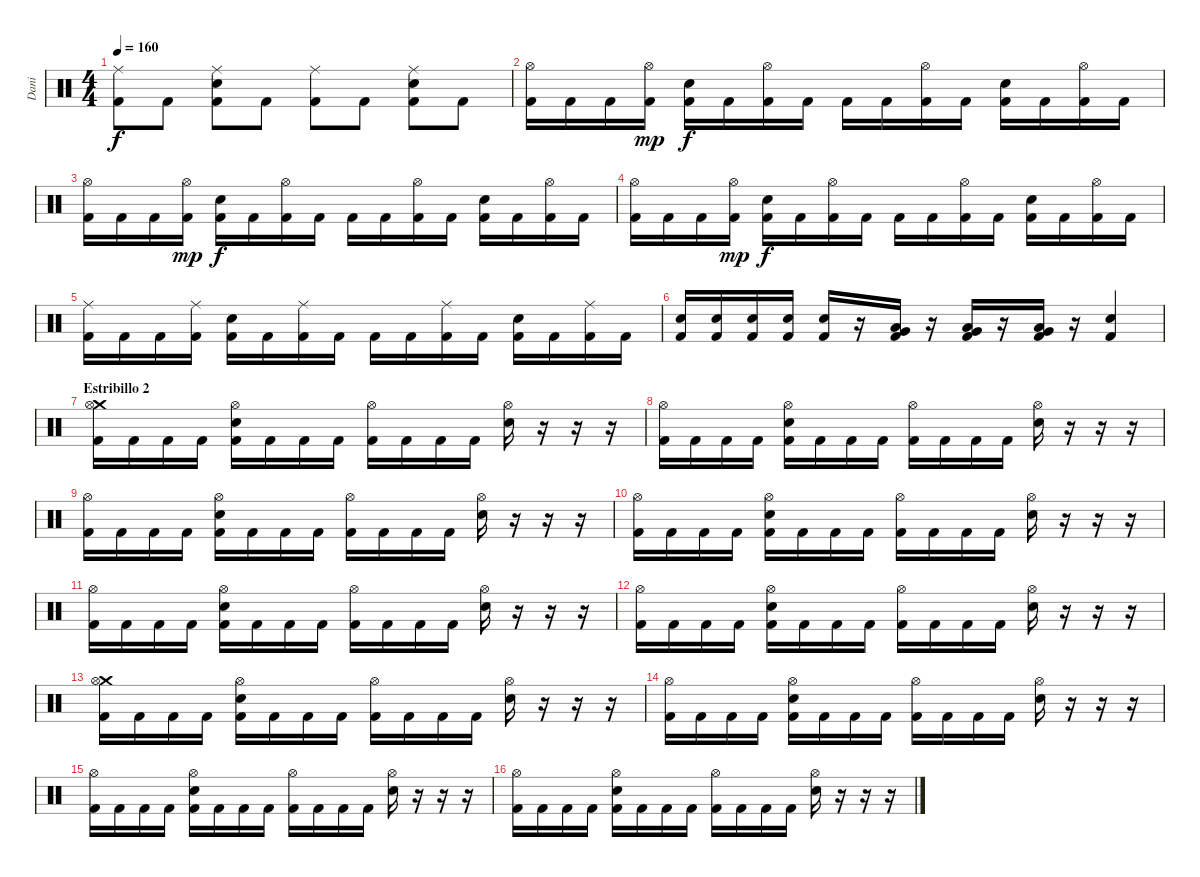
\track ("Dani" "Dani") {instrument percussion}
\staff {score}
\articulation defaults
\ts (4 4)
\tempo 160
\clef neutral
\ks c
("Ride (middle)" "Kick (hit) 2").8{dy f} "Kick (hit) 2".8 ("Ride (middle)" "Electric Snare (hit)" "Kick (hit) 2").8 "Kick (hit) 2".8 ("Ride (middle)" "Kick (hit) 2").8 "Kick (hit) 2".8 ("Ride (middle)" "Electric Snare (hit)" "Kick (hit) 2").8 "Kick (hit) 2".8 |
("Hi-Hat (open)" "Kick (hit) 2").16 "Kick (hit) 2".16 "Kick (hit) 2".16 ("Hi-Hat (open)" "Kick (hit) 2").16{dy mp} ("Electric Snare (hit)" "Kick (hit) 2").16{dy f} "Kick (hit) 2".16 ("Hi-Hat (open)" "Kick (hit) 2").16 "Kick (hit) 2".16 "Kick (hit) 2".16 "Kick (hit) 2".16 ("Hi-Hat (open)" "Kick (hit) 2").16 "Kick (hit) 2".16 ("Electric Snare (hit)" "Kick (hit) 2").16 "Kick (hit) 2".16 ("Hi-Hat (open)" "Kick (hit) 2").16 "Kick (hit) 2".16 |
("Hi-Hat (open)" "Kick (hit) 2").16 "Kick (hit) 2".16 "Kick (hit) 2".16 ("Hi-Hat (open)" "Kick (hit) 2").16{dy mp} ("Electric Snare (hit)" "Kick (hit) 2").16{dy f} "Kick (hit) 2".16 ("Hi-Hat (open)" "Kick (hit) 2").16 "Kick (hit) 2".16 "Kick (hit) 2".16 "Kick (hit) 2".16 ("Hi-Hat (open)" "Kick (hit) 2").16 "Kick (hit) 2".16 ("Electric Snare (hit)" "Kick (hit) 2").16 "Kick (hit) 2".16 ("Hi-Hat (open)" "Kick (hit) 2").16 "Kick (hit) 2".16 |
("Hi-Hat (open)" "Kick (hit) 2").16 "Kick (hit) 2".16 "Kick (hit) 2".16 ("Hi-Hat (open)" "Kick (hit) 2").16{dy mp} ("Electric Snare (hit)" "Kick (hit) 2").16{dy f} "Kick (hit) 2".16 ("Hi-Hat (open)" "Kick (hit) 2").16 "Kick (hit) 2".16 "Kick (hit) 2".16 "Kick (hit) 2".16 ("Hi-Hat (open)" "Kick (hit) 2").16 "Kick (hit) 2".16 ("Electric Snare (hit)" "Kick (hit) 2").16 "Kick (hit) 2".16 ("Hi-Hat (open)" "Kick (hit) 2").16 "Kick (hit) 2".16 |
("Ride (middle)" "Kick (hit) 2").16 "Kick (hit) 2".16 "Kick (hit) 2".16 ("Ride (middle)" "Kick (hit) 2").16 ("Electric Snare (hit)" "Kick (hit) 2").16 "Kick (hit) 2".16 ("Ride (middle)" "Kick (hit) 2").16 "Kick (hit) 2".16 "Kick (hit) 2".16 "Kick (hit) 2".16 ("Ride (middle)" "Kick (hit) 2").16 "Kick (hit) 2".16 ("Electric Snare (hit)" "Kick (hit) 2").16 "Kick (hit) 2".16 ("Ride (middle)" "Kick (hit) 2").16 "Kick (hit) 2".16 |
("Electric Snare (hit)" "Kick (hit) 2").16 ("Electric Snare (hit)" "Kick (hit) 2").16 ("Electric Snare (hit)" "Kick (hit) 2").16 ("Electric Snare (hit)" "Kick (hit) 2").16 ("Electric Snare (hit)" "Kick (hit) 2").16 r.16 ("Low Floor Tom (hit)" "Very Low Tom (hit)" "Kick (hit) 2").16 r.16 ("Low Floor Tom (hit)" "Very Low Tom (hit)" "Kick (hit) 2").16 r.16 ("Low Floor Tom (hit)" "Very Low Tom (hit)" "Kick (hit) 2").16 r.16 ("Electric Snare (hit)" "Kick (hit) 2").4 |
\section ("" "Estribillo 2")
("Crash medium (hit)" "Hi-Hat (open)" "Kick (hit) 2").16 "Kick (hit) 2".16 "Kick (hit) 2".16 "Kick (hit) 2".16 ("Hi-Hat (open)" "Electric Snare (hit)" "Kick (hit) 2").16 "Kick (hit) 2".16 "Kick (hit) 2".16 "Kick (hit) 2".16 ("Hi-Hat (open)" "Kick (hit) 2").16 "Kick (hit) 2".16 "Kick (hit) 2".16 "Kick (hit) 2".16 ("Hi-Hat (open)" "Electric Snare (hit)").16 r.16 r.16 r.16 |
("Hi-Hat (open)" "Kick (hit) 2").16 "Kick (hit) 2".16 "Kick (hit) 2".16 "Kick (hit) 2".16 ("Hi-Hat (open)" "Electric Snare (hit)" "Kick (hit) 2").16 "Kick (hit) 2".16 "Kick (hit) 2".16 "Kick (hit) 2".16 ("Hi-Hat (open)" "Kick (hit) 2").16 "Kick (hit) 2".16 "Kick (hit) 2".16 "Kick (hit) 2".16 ("Hi-Hat (open)" "Electric Snare (hit)").16 r.16 r.16 r.16 |
("Hi-Hat (open)" "Kick (hit) 2").16 "Kick (hit) 2".16 "Kick (hit) 2".16 "Kick (hit) 2".16 ("Hi-Hat (open)" "Electric Snare (hit)" "Kick (hit) 2").16 "Kick (hit) 2".16 "Kick (hit) 2".16 "Kick (hit) 2".16 ("Hi-Hat (open)" "Kick (hit) 2").16 "Kick (hit) 2".16 "Kick (hit) 2".16 "Kick (hit) 2".16 ("Hi-Hat (open)" "Electric Snare (hit)").16 r.16 r.16 r.16 |
("Hi-Hat (open)" "Kick (hit) 2").16 "Kick (hit) 2".16 "Kick (hit) 2".16 "Kick (hit) 2".16 ("Hi-Hat (open)" "Electric Snare (hit)" "Kick (hit) 2").16 "Kick (hit) 2".16 "Kick (hit) 2".16 "Kick (hit) 2".16 ("Hi-Hat (open)" "Kick (hit) 2").16 "Kick (hit) 2".16 "Kick (hit) 2".16 "Kick (hit) 2".16 ("Hi-Hat (open)" "Electric Snare (hit)").16 r.16 r.16 r.16 |
("Hi-Hat (open)" "Kick (hit) 2").16 "Kick (hit) 2".16 "Kick (hit) 2".16 "Kick (hit) 2".16 ("Hi-Hat (open)" "Electric Snare (hit)" "Kick (hit) 2").16 "Kick (hit) 2".16 "Kick (hit) 2".16 "Kick (hit) 2".16 ("Hi-Hat (open)" "Kick (hit) 2").16 "Kick (hit) 2".16 "Kick (hit) 2".16 "Kick (hit) 2".16 ("Hi-Hat (open)" "Electric Snare (hit)").16 r.16 r.16 r.16 |
("Hi-Hat (open)" "Kick (hit) 2").16 "Kick (hit) 2".16 "Kick (hit) 2".16 "Kick (hit) 2".16 ("Hi-Hat (open)" "Electric Snare (hit)" "Kick (hit) 2").16 "Kick (hit) 2".16 "Kick (hit) 2".16 "Kick (hit) 2".16 ("Hi-Hat (open)" "Kick (hit) 2").16 "Kick (hit) 2".16 "Kick (hit) 2".16 "Kick (hit) 2".16 ("Hi-Hat (open)" "Electric Snare (hit)").16 r.16 r.16 r.16 |
("Crash medium (hit)" "Hi-Hat (open)" "Kick (hit) 2").16 "Kick (hit) 2".16 "Kick (hit) 2".16 "Kick (hit) 2".16 ("Hi-Hat (open)" "Electric Snare (hit)" "Kick (hit) 2").16 "Kick (hit) 2".16 "Kick (hit) 2".16 "Kick (hit) 2".16 ("Hi-Hat (open)" "Kick (hit) 2").16 "Kick (hit) 2".16 "Kick (hit) 2".16 "Kick (hit) 2".16 ("Hi-Hat (open)" "Electric Snare (hit)").16 r.16 r.16 r.16 |
("Hi-Hat (open)" "Kick (hit) 2").16 "Kick (hit) 2".16 "Kick (hit) 2".16 "Kick (hit) 2".16 ("Hi-Hat (open)" "Electric Snare (hit)" "Kick (hit) 2").16 "Kick (hit) 2".16 "Kick (hit) 2".16 "Kick (hit) 2".16 ("Hi-Hat (open)" "Kick (hit) 2").16 "Kick (hit) 2".16 "Kick (hit) 2".16 "Kick (hit) 2".16 ("Hi-Hat (open)" "Electric Snare (hit)").16 r.16 r.16 r.16 |
("Hi-Hat (open)" "Kick (hit) 2").16 "Kick (hit) 2".16 "Kick (hit) 2".16 "Kick (hit) 2".16 ("Hi-Hat (open)" "Electric Snare (hit)" "Kick (hit) 2").16 "Kick (hit) 2".16 "Kick (hit) 2".16 "Kick (hit) 2".16 ("Hi-Hat (open)" "Kick (hit) 2").16 "Kick (hit) 2".16 "Kick (hit) 2".16 "Kick (hit) 2".16 ("Hi-Hat (open)" "Electric Snare (hit)").16 r.16 r.16 r.16 |
("Hi-Hat (open)" "Kick (hit) 2").16 "Kick (hit) 2".16 "Kick (hit) 2".16 "Kick (hit) 2".16 ("Hi-Hat (open)" "Electric Snare (hit)" "Kick (hit) 2").16 "Kick (hit) 2".16 "Kick (hit) 2".16 "Kick (hit) 2".16 ("Hi-Hat (open)" "Kick (hit) 2").16 "Kick (hit) 2".16 "Kick (hit) 2".16 "Kick (hit) 2".16 ("Hi-Hat (open)" "Electric Snare (hit)").16 r.16 r.16 r.16
